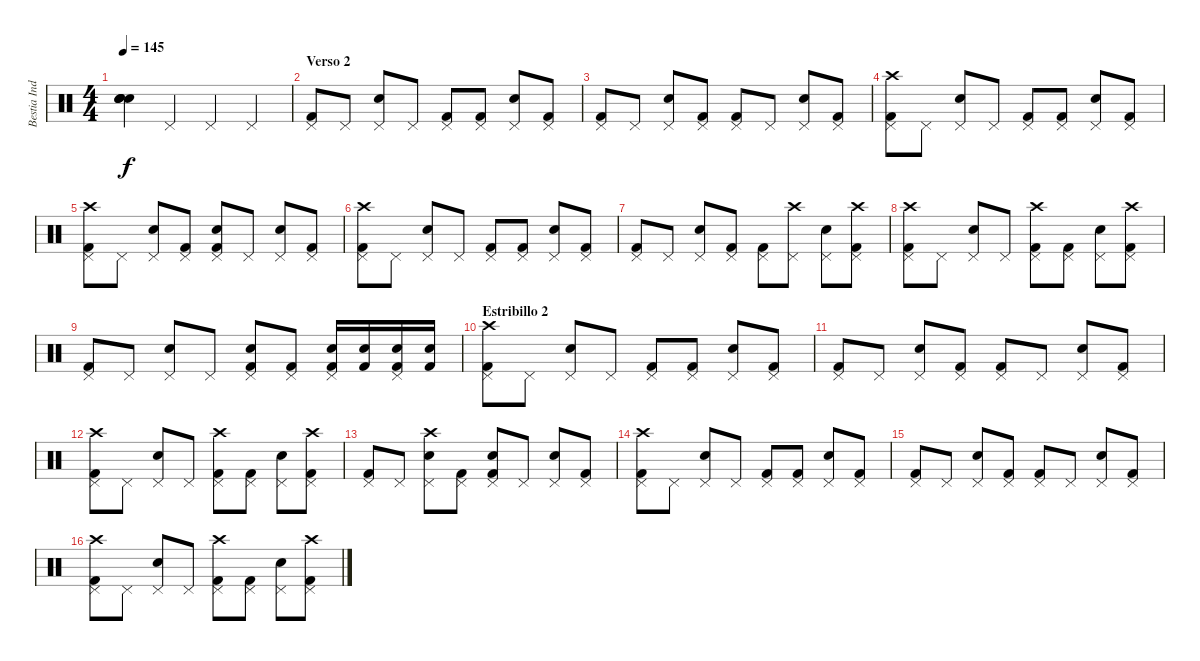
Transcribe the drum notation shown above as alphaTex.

\track ("Bestia Indomable" "Bestia Ind") {instrument percussion}
\staff {score}
\articulation defaults
\ts (4 4)
\tempo 145
\clef neutral
\ks c
("Snare (hit)"{t} "Snare (hit)"{t} "Snare (hit)"{t} "Snare (hit)"{t}).4{dy f} "Pedal Hi-Hat (hit)".4 "Pedal Hi-Hat (hit)".4 "Pedal Hi-Hat (hit)".4 |
\section ("" "Verso 2")
("Pedal Hi-Hat (hit)" "Kick (hit) 2").8 "Pedal Hi-Hat (hit)".8 ("Pedal Hi-Hat (hit)" "Electric Snare (hit)").8 "Pedal Hi-Hat (hit)".8 ("Pedal Hi-Hat (hit)" "Kick (hit) 2").8 ("Pedal Hi-Hat (hit)" "Kick (hit) 2").8 ("Pedal Hi-Hat (hit)" "Electric Snare (hit)").8 ("Pedal Hi-Hat (hit)" "Kick (hit) 2").8 |
("Pedal Hi-Hat (hit)" "Kick (hit) 2").8 "Pedal Hi-Hat (hit)".8 ("Pedal Hi-Hat (hit)" "Electric Snare (hit)").8 ("Pedal Hi-Hat (hit)" "Kick (hit) 2").8 ("Pedal Hi-Hat (hit)" "Kick (hit) 2").8 "Pedal Hi-Hat (hit)".8 ("Pedal Hi-Hat (hit)" "Electric Snare (hit)").8 ("Pedal Hi-Hat (hit)" "Kick (hit) 2").8 |
("Pedal Hi-Hat (hit)" "Crash high (hit)" "Kick (hit) 2").8 "Pedal Hi-Hat (hit)".8 ("Pedal Hi-Hat (hit)" "Electric Snare (hit)").8 "Pedal Hi-Hat (hit)".8 ("Pedal Hi-Hat (hit)" "Kick (hit) 2").8 ("Pedal Hi-Hat (hit)" "Kick (hit) 2").8 ("Pedal Hi-Hat (hit)" "Electric Snare (hit)").8 ("Pedal Hi-Hat (hit)" "Kick (hit) 2").8 |
("Pedal Hi-Hat (hit)" "Crash high (hit)" "Kick (hit) 2").8 "Pedal Hi-Hat (hit)".8 ("Pedal Hi-Hat (hit)" "Electric Snare (hit)").8 ("Pedal Hi-Hat (hit)" "Kick (hit) 2").8 ("Pedal Hi-Hat (hit)" "Electric Snare (hit)" "Kick (hit) 2").8 "Pedal Hi-Hat (hit)".8 ("Pedal Hi-Hat (hit)" "Electric Snare (hit)").8 ("Pedal Hi-Hat (hit)" "Kick (hit) 2").8 |
("Pedal Hi-Hat (hit)" "Crash high (hit)" "Kick (hit) 2").8 "Pedal Hi-Hat (hit)".8 ("Pedal Hi-Hat (hit)" "Electric Snare (hit)").8 "Pedal Hi-Hat (hit)".8 ("Pedal Hi-Hat (hit)" "Kick (hit) 2").8 ("Pedal Hi-Hat (hit)" "Kick (hit) 2").8 ("Pedal Hi-Hat (hit)" "Electric Snare (hit)").8 ("Pedal Hi-Hat (hit)" "Kick (hit) 2").8 |
("Pedal Hi-Hat (hit)" "Kick (hit) 2").8 "Pedal Hi-Hat (hit)".8 ("Pedal Hi-Hat (hit)" "Electric Snare (hit)").8 ("Pedal Hi-Hat (hit)" "Kick (hit) 2").8 ("Pedal Hi-Hat (hit)" "Kick (hit) 2").8 ("Pedal Hi-Hat (hit)" "Crash high (hit)").8 ("Pedal Hi-Hat (hit)" "Electric Snare (hit)").8 ("Pedal Hi-Hat (hit)" "Crash high (hit)" "Kick (hit) 2").8 |
("Pedal Hi-Hat (hit)" "Crash high (hit)" "Kick (hit) 2").8 "Pedal Hi-Hat (hit)".8 ("Pedal Hi-Hat (hit)" "Electric Snare (hit)").8 "Pedal Hi-Hat (hit)".8 ("Pedal Hi-Hat (hit)" "Crash high (hit)" "Kick (hit) 2").8 ("Pedal Hi-Hat (hit)" "Kick (hit) 2").8 ("Pedal Hi-Hat (hit)" "Electric Snare (hit)").8 ("Pedal Hi-Hat (hit)" "Crash high (hit)" "Kick (hit) 2").8 |
("Pedal Hi-Hat (hit)" "Kick (hit) 2").8 "Pedal Hi-Hat (hit)".8 ("Pedal Hi-Hat (hit)" "Electric Snare (hit)").8 "Pedal Hi-Hat (hit)".8 ("Pedal Hi-Hat (hit)" "Electric Snare (hit)" "Kick (hit) 2").8 ("Pedal Hi-Hat (hit)" "Kick (hit) 2").8 ("Pedal Hi-Hat (hit)" "Electric Snare (hit)" "Kick (hit) 2").16 ("Electric Snare (hit)" "Kick (hit) 2").16 ("Pedal Hi-Hat (hit)" "Electric Snare (hit)" "Kick (hit) 2").16 ("Electric Snare (hit)" "Kick (hit) 2").16 |
\section ("" "Estribillo 2")
("Pedal Hi-Hat (hit)" "Crash high (hit)" "Kick (hit) 2").8 "Pedal Hi-Hat (hit)".8 ("Pedal Hi-Hat (hit)" "Electric Snare (hit)").8 "Pedal Hi-Hat (hit)".8 ("Pedal Hi-Hat (hit)" "Kick (hit) 2").8 ("Pedal Hi-Hat (hit)" "Kick (hit) 2").8 ("Pedal Hi-Hat (hit)" "Electric Snare (hit)").8 ("Pedal Hi-Hat (hit)" "Kick (hit) 2").8 |
("Pedal Hi-Hat (hit)" "Kick (hit) 2").8 "Pedal Hi-Hat (hit)".8 ("Pedal Hi-Hat (hit)" "Electric Snare (hit)").8 ("Pedal Hi-Hat (hit)" "Kick (hit) 2").8 ("Pedal Hi-Hat (hit)" "Kick (hit) 2").8 "Pedal Hi-Hat (hit)".8 ("Pedal Hi-Hat (hit)" "Electric Snare (hit)").8 ("Pedal Hi-Hat (hit)" "Kick (hit) 2").8 |
("Pedal Hi-Hat (hit)" "Crash high (hit)" "Kick (hit) 2").8 "Pedal Hi-Hat (hit)".8 ("Pedal Hi-Hat (hit)" "Electric Snare (hit)").8 "Pedal Hi-Hat (hit)".8 ("Pedal Hi-Hat (hit)" "Crash high (hit)" "Kick (hit) 2").8 ("Pedal Hi-Hat (hit)" "Kick (hit) 2").8 ("Pedal Hi-Hat (hit)" "Electric Snare (hit)").8 ("Pedal Hi-Hat (hit)" "Crash high (hit)" "Kick (hit) 2").8 |
("Pedal Hi-Hat (hit)" "Kick (hit) 2").8 "Pedal Hi-Hat (hit)".8 ("Pedal Hi-Hat (hit)" "Crash high (hit)" "Electric Snare (hit)").8 ("Pedal Hi-Hat (hit)" "Kick (hit) 2").8 ("Pedal Hi-Hat (hit)" "Electric Snare (hit)" "Kick (hit) 2").8 "Pedal Hi-Hat (hit)".8 ("Pedal Hi-Hat (hit)" "Electric Snare (hit)").8 ("Pedal Hi-Hat (hit)" "Kick (hit) 2").8 |
("Pedal Hi-Hat (hit)" "Crash high (hit)" "Kick (hit) 2").8 "Pedal Hi-Hat (hit)".8 ("Pedal Hi-Hat (hit)" "Electric Snare (hit)").8 "Pedal Hi-Hat (hit)".8 ("Pedal Hi-Hat (hit)" "Kick (hit) 2").8 ("Pedal Hi-Hat (hit)" "Kick (hit) 2").8 ("Pedal Hi-Hat (hit)" "Electric Snare (hit)").8 ("Pedal Hi-Hat (hit)" "Kick (hit) 2").8 |
("Pedal Hi-Hat (hit)" "Kick (hit) 2").8 "Pedal Hi-Hat (hit)".8 ("Pedal Hi-Hat (hit)" "Electric Snare (hit)").8 ("Pedal Hi-Hat (hit)" "Kick (hit) 2").8 ("Pedal Hi-Hat (hit)" "Kick (hit) 2").8 "Pedal Hi-Hat (hit)".8 ("Pedal Hi-Hat (hit)" "Electric Snare (hit)").8 ("Pedal Hi-Hat (hit)" "Kick (hit) 2").8 |
("Pedal Hi-Hat (hit)" "Crash high (hit)" "Kick (hit) 2").8 "Pedal Hi-Hat (hit)".8 ("Pedal Hi-Hat (hit)" "Electric Snare (hit)").8 "Pedal Hi-Hat (hit)".8 ("Pedal Hi-Hat (hit)" "Crash high (hit)" "Kick (hit) 2").8 ("Pedal Hi-Hat (hit)" "Kick (hit) 2").8 ("Pedal Hi-Hat (hit)" "Electric Snare (hit)").8 ("Pedal Hi-Hat (hit)" "Crash high (hit)" "Kick (hit) 2").8
